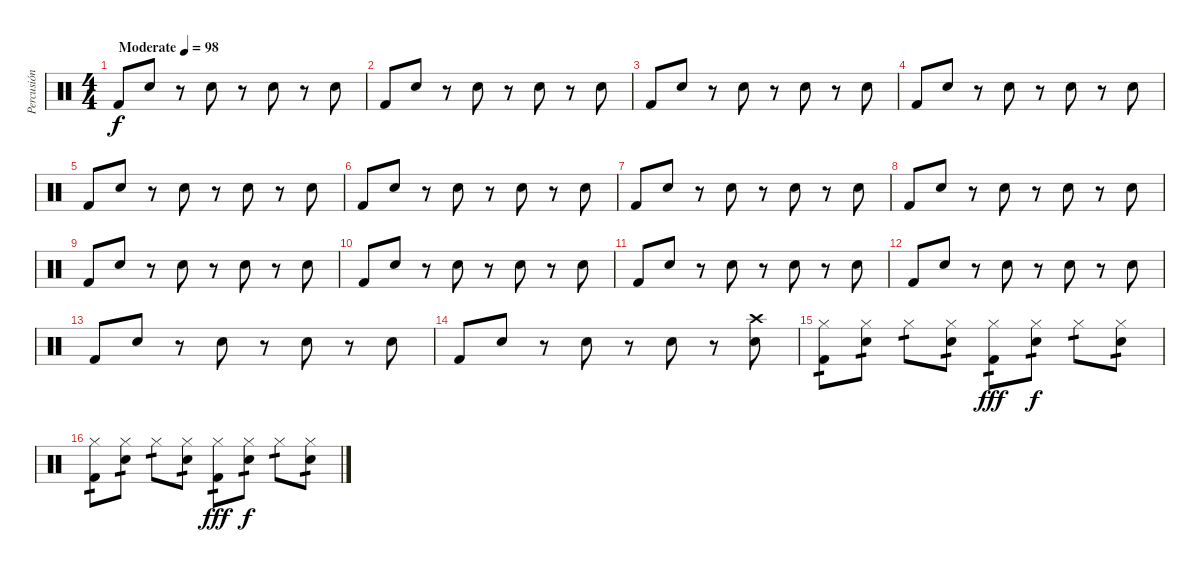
\track ("Percusión" "Percusión") {instrument percussion}
\staff {score}
\articulation defaults
\ts (4 4)
\tempo (98 "Moderate")
\clef neutral
\ks c "Kick (hit) 2".8{dy f} "Snare (hit) 2".8
r.8 "Snare (hit) 2".8 r.8 "Snare (hit) 2".8 r.8 "Snare (hit) 2".8 |
"Kick (hit) 2".8 "Snare (hit) 2".8 r.8 "Snare (hit) 2".8 r.8 "Snare (hit) 2".8 r.8 "Snare (hit) 2".8 |
"Kick (hit) 2".8 "Snare (hit) 2".8 r.8 "Snare (hit) 2".8 r.8 "Snare (hit) 2".8 r.8 "Snare (hit) 2".8 |
"Kick (hit) 2".8 "Snare (hit) 2".8 r.8 "Snare (hit) 2".8 r.8 "Snare (hit) 2".8 r.8 "Snare (hit) 2".8 |
"Kick (hit) 2".8 "Snare (hit) 2".8 r.8 "Snare (hit) 2".8 r.8 "Snare (hit) 2".8 r.8 "Snare (hit) 2".8 |
"Kick (hit) 2".8 "Snare (hit) 2".8 r.8 "Snare (hit) 2".8 r.8 "Snare (hit) 2".8 r.8 "Snare (hit) 2".8 |
"Kick (hit) 2".8 "Snare (hit) 2".8 r.8 "Snare (hit) 2".8 r.8 "Snare (hit) 2".8 r.8 "Snare (hit) 2".8 |
"Kick (hit) 2".8 "Snare (hit) 2".8 r.8 "Snare (hit) 2".8 r.8 "Snare (hit) 2".8 r.8 "Snare (hit) 2".8 |
"Kick (hit) 2".8 "Snare (hit) 2".8 r.8 "Snare (hit) 2".8 r.8 "Snare (hit) 2".8 r.8 "Snare (hit) 2".8 |
"Kick (hit) 2".8 "Snare (hit) 2".8 r.8 "Snare (hit) 2".8 r.8 "Snare (hit) 2".8 r.8 "Snare (hit) 2".8 |
"Kick (hit) 2".8 "Snare (hit) 2".8 r.8 "Snare (hit) 2".8 r.8 "Snare (hit) 2".8 r.8 "Snare (hit) 2".8 |
"Kick (hit) 2".8 "Snare (hit) 2".8 r.8 "Snare (hit) 2".8 r.8 "Snare (hit) 2".8 r.8 "Snare (hit) 2".8 |
"Kick (hit) 2".8 "Snare (hit) 2".8 r.8 "Snare (hit) 2".8 r.8 "Snare (hit) 2".8 r.8 "Snare (hit) 2".8 |
"Kick (hit) 2".8 "Snare (hit) 2".8 r.8 "Snare (hit) 2".8 r.8 "Snare (hit) 2".8 r.8 ("Crash high (hit)" "Snare (hit) 2").8 |
("Hi-Hat (closed)" "Kick (hit) 2").8{tp 1} ("Hi-Hat (closed)" "Snare (hit) 2").8{tp 1} "Hi-Hat (closed)".8{tp 1} ("Hi-Hat (closed)" "Snare (hit) 2").8{tp 1} ("Hi-Hat (closed)" "Kick (hit) 2").8{tp 1 dy fff} ("Hi-Hat (closed)" "Snare (hit) 2").8{tp 1 dy f} "Hi-Hat (closed)".8{tp 1} ("Hi-Hat (closed)" "Snare (hit) 2").8{tp 1} |
("Hi-Hat (closed)" "Kick (hit) 2").8{tp 1} ("Hi-Hat (closed)" "Snare (hit) 2").8{tp 1} "Hi-Hat (closed)".8{tp 1} ("Hi-Hat (closed)" "Snare (hit) 2").8{tp 1} ("Hi-Hat (closed)" "Kick (hit) 2").8{tp 1 dy fff} ("Hi-Hat (closed)" "Snare (hit) 2").8{tp 1 dy f} "Hi-Hat (closed)".8{tp 1} ("Hi-Hat (closed)" "Snare (hit) 2").8{tp 1}
